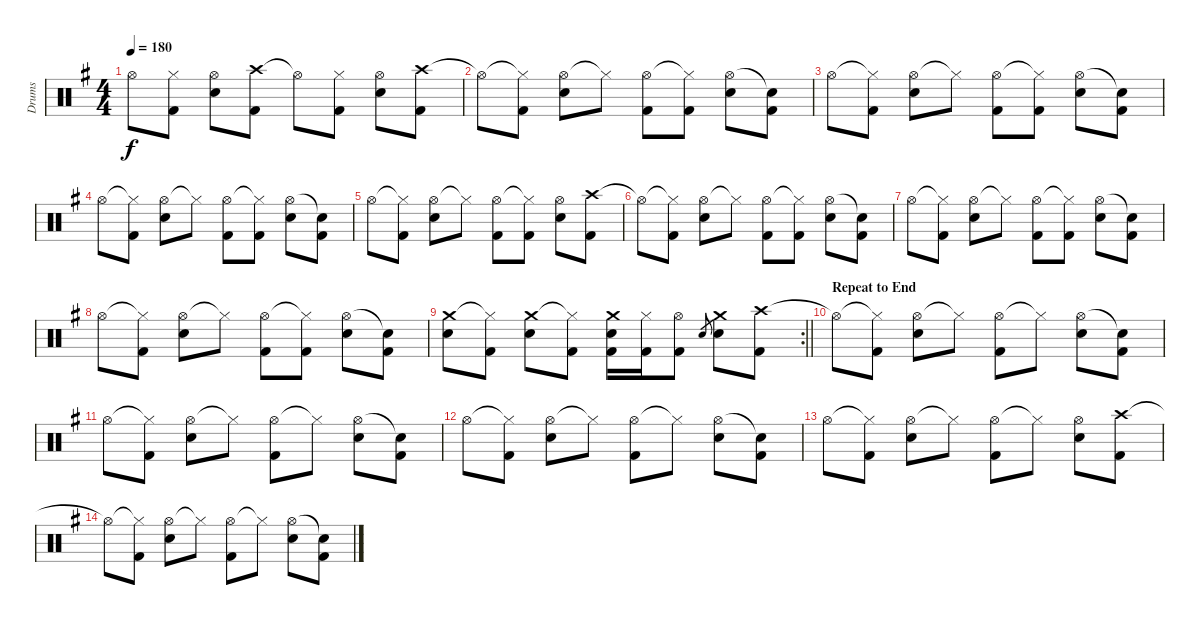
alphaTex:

\track ("Drums" "Drums") {instrument percussion}
\staff {score}
\articulation defaults
\ts (4 4)
\tempo 180
\clef neutral
\ks g "Hi-Hat (open)"{t}.8{dy f}
("Hi-Hat (closed)" "Kick (hit) 2").8 ("Hi-Hat (open)" "Snare (hit) 2").8 ("Crash high (hit)" "Kick (hit) 2").8 "Hi-Hat (open)"{t}.8 ("Hi-Hat (closed)" "Kick (hit) 2").8 ("Hi-Hat (open)" "Snare (hit) 2").8 ("Crash high (hit)" "Kick (hit) 2").8 |
"Hi-Hat (open)"{t}.8 ("Hi-Hat (closed)"{t} "Kick (hit) 2").8 ("Hi-Hat (open)" "Snare (hit) 2").8 "Hi-Hat (closed)"{t}.8 ("Hi-Hat (open)" "Kick (hit) 2").8 ("Hi-Hat (closed)"{t} "Kick (hit) 2").8 ("Hi-Hat (open)" "Snare (hit) 2").8 ("Snare (hit)"{t} "Kick (hit) 2").8 |
"Hi-Hat (open)".8 ("Hi-Hat (closed)"{t} "Kick (hit) 2").8 ("Hi-Hat (open)" "Snare (hit) 2").8 "Hi-Hat (closed)"{t}.8 ("Hi-Hat (open)" "Kick (hit) 2").8 ("Hi-Hat (closed)"{t} "Kick (hit) 2").8 ("Hi-Hat (open)" "Snare (hit) 2").8 ("Snare (hit)"{t} "Kick (hit) 2").8 |
"Hi-Hat (open)".8 ("Hi-Hat (closed)"{t} "Kick (hit) 2").8 ("Hi-Hat (open)" "Snare (hit) 2").8 "Hi-Hat (closed)"{t}.8 ("Hi-Hat (open)" "Kick (hit) 2").8 ("Hi-Hat (closed)"{t} "Kick (hit) 2").8 ("Hi-Hat (open)" "Snare (hit) 2").8 ("Snare (hit)"{t} "Kick (hit) 2").8 |
"Hi-Hat (open)".8 ("Hi-Hat (closed)"{t} "Kick (hit) 2").8 ("Hi-Hat (open)" "Snare (hit) 2").8 "Hi-Hat (closed)"{t}.8 ("Hi-Hat (open)" "Kick (hit) 2").8 ("Hi-Hat (closed)"{t} "Kick (hit) 2").8 ("Hi-Hat (open)" "Snare (hit) 2").8 ("Crash high (hit)" "Kick (hit) 2").8 |
"Hi-Hat (open)"{t}.8 ("Hi-Hat (closed)"{t} "Kick (hit) 2").8 ("Hi-Hat (open)" "Snare (hit) 2").8 "Hi-Hat (closed)"{t}.8 ("Hi-Hat (open)" "Kick (hit) 2").8 ("Hi-Hat (closed)"{t} "Kick (hit) 2").8 ("Hi-Hat (open)" "Snare (hit) 2").8 ("Snare (hit)"{t} "Kick (hit) 2").8 |
"Hi-Hat (open)".8 ("Hi-Hat (closed)"{t} "Kick (hit) 2").8 ("Hi-Hat (open)" "Snare (hit) 2").8 "Hi-Hat (closed)"{t}.8 ("Hi-Hat (open)" "Kick (hit) 2").8 ("Hi-Hat (closed)"{t} "Kick (hit) 2").8 ("Hi-Hat (open)" "Snare (hit) 2").8 ("Snare (hit)"{t} "Kick (hit) 2").8 |
"Hi-Hat (open)".8 ("Hi-Hat (closed)"{t} "Kick (hit) 2").8 ("Hi-Hat (open)" "Snare (hit) 2").8 "Hi-Hat (closed)"{t}.8 ("Hi-Hat (open)" "Kick (hit) 2").8 ("Hi-Hat (closed)"{t} "Kick (hit) 2").8 ("Hi-Hat (open)" "Snare (hit) 2").8 ("Snare (hit)"{t} "Kick (hit) 2").8 |
\rc 2
\barLineRight lightlight
("Crash medium (hit)" "Snare (hit) 2").8 ("Hi-Hat (closed)"{t} "Kick (hit) 2").8 ("Crash medium (hit)" "Snare (hit) 2").8 ("Hi-Hat (closed)"{t} "Kick (hit) 2").8 ("Crash medium (hit)" "Snare (hit) 2" "Kick (hit) 2").16 ("Hi-Hat (closed)" "Kick (hit) 2").16 ("Hi-Hat (open)" "Kick (hit) 2").8 "Snare (hit) 2".8{gr} ("Crash medium (hit)" "Snare (hit) 2").8 ("Crash high (hit)" "Kick (hit) 2").8 |
\section ("" "Repeat to End")
"Hi-Hat (open)"{t}.8 ("Hi-Hat (closed)"{t} "Kick (hit) 2").8 ("Hi-Hat (open)" "Snare (hit) 2").8 "Hi-Hat (closed)"{t}.8 ("Hi-Hat (open)" "Kick (hit) 2").8 "Hi-Hat (closed)"{t}.8 ("Hi-Hat (open)" "Snare (hit) 2").8 ("Snare (hit)"{t} "Kick (hit) 2").8 |
"Hi-Hat (open)".8 ("Hi-Hat (closed)"{t} "Kick (hit) 2").8 ("Hi-Hat (open)" "Snare (hit) 2").8 "Hi-Hat (closed)"{t}.8 ("Hi-Hat (open)" "Kick (hit) 2").8 "Hi-Hat (closed)"{t}.8 ("Hi-Hat (open)" "Snare (hit) 2").8 ("Snare (hit)"{t} "Kick (hit) 2").8 |
"Hi-Hat (open)".8 ("Hi-Hat (closed)"{t} "Kick (hit) 2").8 ("Hi-Hat (open)" "Snare (hit) 2").8 "Hi-Hat (closed)"{t}.8 ("Hi-Hat (open)" "Kick (hit) 2").8 "Hi-Hat (closed)"{t}.8 ("Hi-Hat (open)" "Snare (hit) 2").8 ("Snare (hit)"{t} "Kick (hit) 2").8 |
"Hi-Hat (open)".8 ("Hi-Hat (closed)"{t} "Kick (hit) 2").8 ("Hi-Hat (open)" "Snare (hit) 2").8 "Hi-Hat (closed)"{t}.8 ("Hi-Hat (open)" "Kick (hit) 2").8 "Hi-Hat (closed)"{t}.8 ("Hi-Hat (open)" "Snare (hit) 2").8 ("Crash high (hit)" "Kick (hit) 2").8 |
"Hi-Hat (open)"{t}.8 ("Hi-Hat (closed)"{t} "Kick (hit) 2").8 ("Hi-Hat (open)" "Snare (hit) 2").8 "Hi-Hat (closed)"{t}.8 ("Hi-Hat (open)" "Kick (hit) 2").8 "Hi-Hat (closed)"{t}.8 ("Hi-Hat (open)" "Snare (hit) 2").8 ("Snare (hit)"{t} "Kick (hit) 2").8
